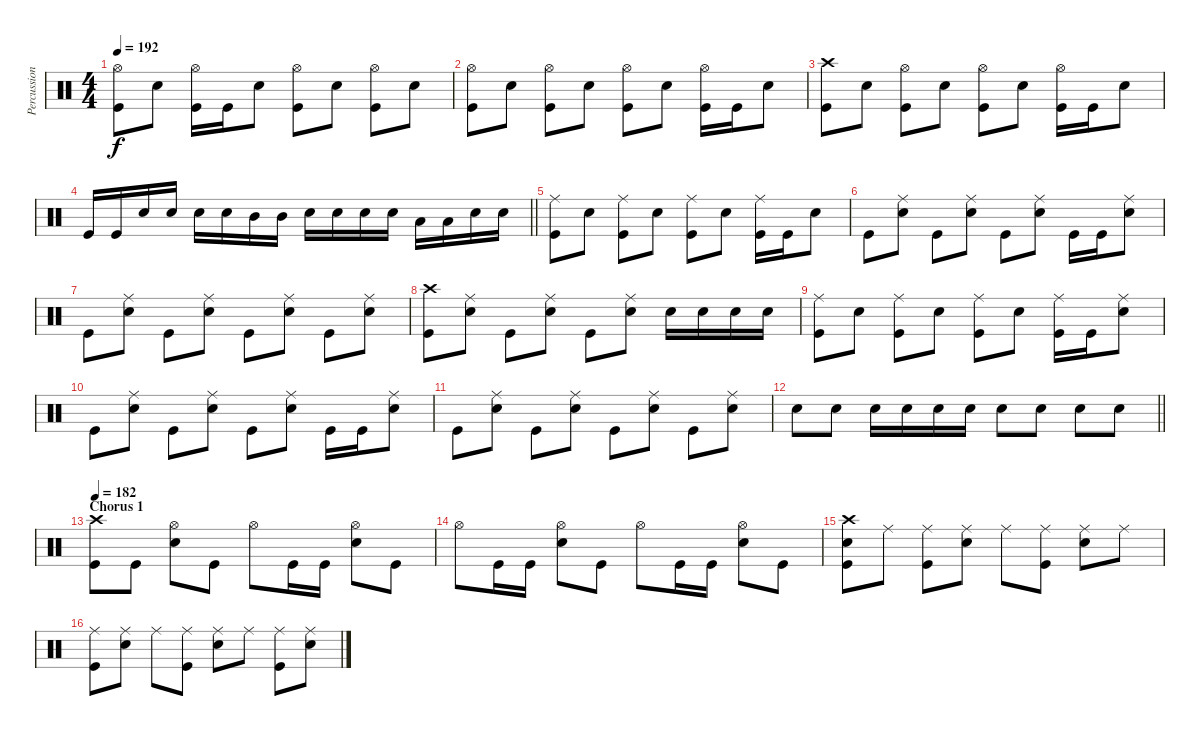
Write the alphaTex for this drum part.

\track ("Percussion" "Percussion") {instrument percussion}
\staff {score}
\articulation defaults
\ts (4 4)
\tempo 192
\clef neutral
\ks c
("Hi-Hat (open)" "Kick (hit)").8{dy f} "Snare (hit) 2".8 ("Hi-Hat (open)" "Kick (hit)").16 "Kick (hit)".16 "Snare (hit) 2".8 ("Hi-Hat (open)" "Kick (hit)").8 "Snare (hit) 2".8 ("Hi-Hat (open)" "Kick (hit)").8 "Snare (hit) 2".8 |
("Hi-Hat (open)" "Kick (hit)").8 "Snare (hit) 2".8 ("Hi-Hat (open)" "Kick (hit)").8 "Snare (hit) 2".8 ("Hi-Hat (open)" "Kick (hit)").8 "Snare (hit) 2".8 ("Kick (hit)" "Hi-Hat (open)").16 "Kick (hit)".16 "Snare (hit) 2".8 |
("Kick (hit)" "Crash high (hit)").8 "Snare (hit) 2".8 ("Hi-Hat (open)" "Kick (hit)").8 "Snare (hit) 2".8 ("Hi-Hat (open)" "Kick (hit)").8 "Snare (hit) 2".8 ("Kick (hit)" "Hi-Hat (open)").16 "Kick (hit)".16 "Snare (hit) 2".8 |
\barLineRight lightlight "Kick (hit)".16 "Kick (hit)".16 "Snare (hit) 2".16 "Snare (hit) 2".16 "Snare (hit) 2".16 "Snare (hit) 2".16 "Mid Tom (hit)".16 "Mid Tom (hit)".16 "Snare (hit) 2".16 "Snare (hit) 2".16 "Snare (hit) 2".16 "Snare (hit) 2".16 "Low Tom (hit)".16 "Low Tom (hit)".16 "Snare (hit) 2".16 "Snare (hit) 2".16
|
("Ride (middle)" "Kick (hit)").8 "Snare (hit) 2".8 ("Ride (middle)" "Kick (hit)").8 "Snare (hit) 2".8 ("Ride (middle)" "Kick (hit)").8 "Snare (hit) 2".8 ("Kick (hit)" "Ride (middle)").16 "Kick (hit)".16 "Snare (hit) 2".8 |
"Kick (hit)".8 ("Ride (middle)" "Snare (hit) 2").8 "Kick (hit)".8 ("Ride (middle)" "Snare (hit) 2").8 "Kick (hit)".8 ("Ride (middle)" "Snare (hit) 2").8 "Kick (hit)".16 "Kick (hit)".16 ("Ride (middle)" "Snare (hit) 2").8 |
"Kick (hit)".8 ("Ride (middle)" "Snare (hit) 2").8 "Kick (hit)".8 ("Ride (middle)" "Snare (hit) 2").8 "Kick (hit)".8 ("Ride (middle)" "Snare (hit) 2").8 "Kick (hit)".8 ("Ride (middle)" "Snare (hit) 2").8 |
("Crash high (hit)" "Kick (hit)").8 ("Ride (middle)" "Snare (hit) 2").8 "Kick (hit)".8 ("Ride (middle)" "Snare (hit) 2").8 "Kick (hit)".8 ("Ride (middle)" "Snare (hit) 2").8 "Snare (hit) 2".16 "Snare (hit) 2".16 "Snare (hit) 2".16 "Snare (hit) 2".16 |
("Ride (middle)" "Kick (hit)").8 "Snare (hit) 2".8 ("Ride (middle)" "Kick (hit)").8 "Snare (hit) 2".8 ("Ride (middle)" "Kick (hit)").8 "Snare (hit) 2".8 ("Kick (hit)" "Ride (middle)").16 "Kick (hit)".16 ("Ride (middle)" "Snare (hit) 2").8 |
"Kick (hit)".8 ("Ride (middle)" "Snare (hit) 2").8 "Kick (hit)".8 ("Ride (middle)" "Snare (hit) 2").8 "Kick (hit)".8 ("Ride (middle)" "Snare (hit) 2").8 "Kick (hit)".16 "Kick (hit)".16 ("Ride (middle)" "Snare (hit) 2").8 |
"Kick (hit)".8 ("Ride (middle)" "Snare (hit) 2").8 "Kick (hit)".8 ("Ride (middle)" "Snare (hit) 2").8 "Kick (hit)".8 ("Ride (middle)" "Snare (hit) 2").8 "Kick (hit)".8 ("Ride (middle)" "Snare (hit) 2").8 |
\barLineRight lightlight "Snare (hit) 2".8 "Snare (hit) 2".8 "Snare (hit) 2".16 "Snare (hit) 2".16 "Snare (hit) 2".16 "Snare (hit) 2".16 "Snare (hit) 2".8 "Snare (hit) 2".8 "Snare (hit) 2".8 "Snare (hit) 2".8
|
\section ("" "Chorus 1")
\tempo 182
("Crash high (hit)" "Kick (hit)").8 "Kick (hit)".8 ("Snare (hit) 2" "Hi-Hat (open)").8 "Kick (hit)".8 "Hi-Hat (open)".8 "Kick (hit)".16 "Kick (hit)".16 ("Snare (hit) 2" "Hi-Hat (open)").8 "Kick (hit)".8 |
"Hi-Hat (open)".8 "Kick (hit)".16 "Kick (hit)".16 ("Snare (hit) 2" "Hi-Hat (open)").8 "Kick (hit)".8 "Hi-Hat (open)".8 "Kick (hit)".16 "Kick (hit)".16 ("Snare (hit) 2" "Hi-Hat (open)").8 "Kick (hit)".8 |
("Kick (hit)" "Crash high (hit)" "Snare (hit) 2").8 "Ride (middle)".8 ("Ride (middle)" "Kick (hit)").8 ("Snare (hit) 2" "Ride (middle)").8 "Ride (middle)".8 ("Ride (middle)" "Kick (hit)").8 ("Ride (middle)" "Snare (hit) 2").8 "Ride (middle)".8 |
("Ride (middle)" "Kick (hit)").8 ("Ride (middle)" "Snare (hit) 2").8 "Ride (middle)".8 ("Ride (middle)" "Kick (hit)").8 ("Ride (middle)" "Snare (hit) 2").8 "Ride (middle)".8 ("Ride (middle)" "Kick (hit)").8 ("Ride (middle)" "Snare (hit) 2").8
